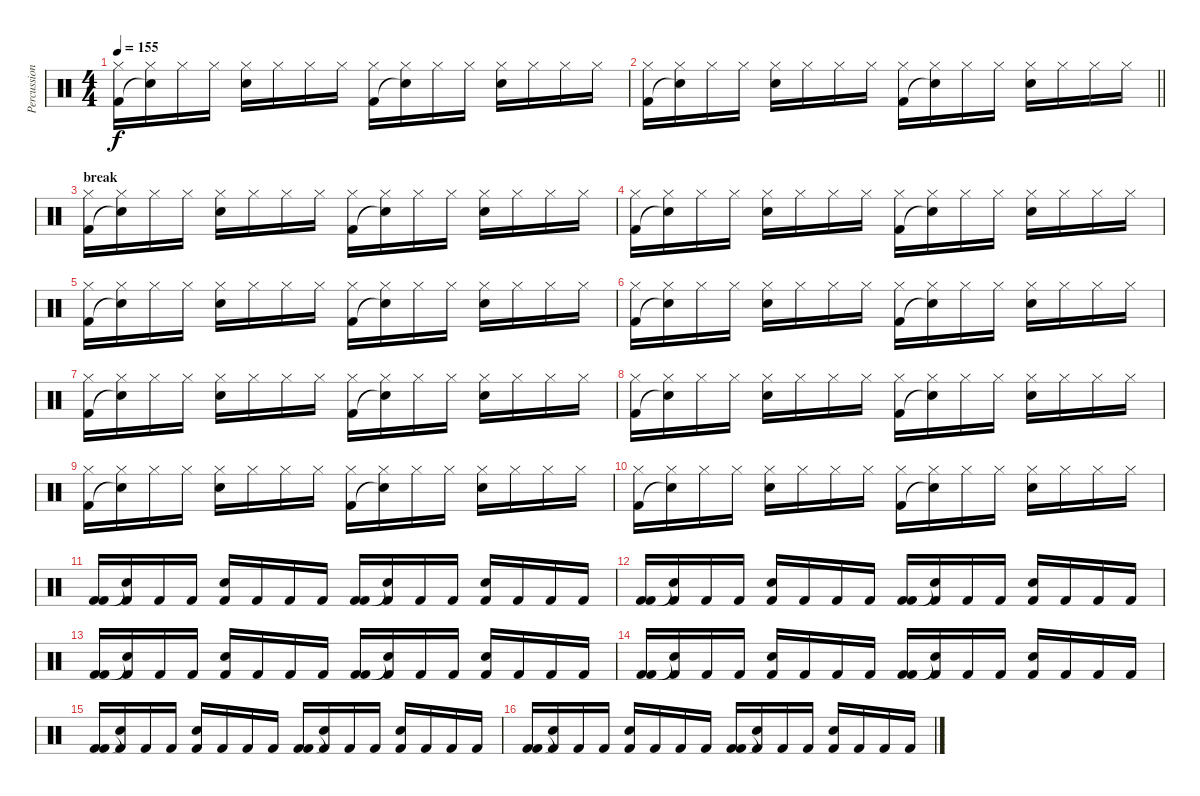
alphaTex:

\track ("Percussion" "Percussion") {instrument percussion}
\staff {score}
\articulation defaults
\ts (4 4)
\tempo 155
\clef neutral
\ks c
("Hi-Hat (closed)" "Kick (hit) 2").16{dy f} ("Hi-Hat (closed)" "Snare (hit)"{t}).16 "Hi-Hat (closed)".16 "Hi-Hat (closed)".16 ("Hi-Hat (closed)" "Snare (hit) 2").16 "Hi-Hat (closed)".16 "Hi-Hat (closed)".16 "Hi-Hat (closed)".16 ("Hi-Hat (closed)" "Kick (hit) 2").16 ("Hi-Hat (closed)" "Snare (hit)"{t}).16 "Hi-Hat (closed)".16 "Hi-Hat (closed)".16 ("Hi-Hat (closed)" "Snare (hit) 2").16 "Hi-Hat (closed)".16 "Hi-Hat (closed)".16 "Hi-Hat (closed)".16 |
\barLineRight lightlight
("Hi-Hat (closed)" "Kick (hit) 2").16 ("Hi-Hat (closed)" "Snare (hit)"{t}).16 "Hi-Hat (closed)".16 "Hi-Hat (closed)".16 ("Hi-Hat (closed)" "Snare (hit) 2").16 "Hi-Hat (closed)".16 "Hi-Hat (closed)".16 "Hi-Hat (closed)".16 ("Hi-Hat (closed)" "Kick (hit) 2").16 ("Hi-Hat (closed)" "Snare (hit)"{t}).16 "Hi-Hat (closed)".16 "Hi-Hat (closed)".16 ("Hi-Hat (closed)" "Snare (hit) 2").16 "Hi-Hat (closed)".16 "Hi-Hat (closed)".16 "Hi-Hat (closed)".16 |
\section ("" "break")
("Hi-Hat (closed)" "Kick (hit) 2").16 ("Hi-Hat (closed)" "Snare (hit)"{t}).16 "Hi-Hat (closed)".16 "Hi-Hat (closed)".16 ("Hi-Hat (closed)" "Snare (hit) 2").16 "Hi-Hat (closed)".16 "Hi-Hat (closed)".16 "Hi-Hat (closed)".16 ("Hi-Hat (closed)" "Kick (hit) 2").16 ("Hi-Hat (closed)" "Snare (hit)"{t}).16 "Hi-Hat (closed)".16 "Hi-Hat (closed)".16 ("Hi-Hat (closed)" "Snare (hit) 2").16 "Hi-Hat (closed)".16 "Hi-Hat (closed)".16 "Hi-Hat (closed)".16 |
("Hi-Hat (closed)" "Kick (hit) 2").16 ("Hi-Hat (closed)" "Snare (hit)"{t}).16 "Hi-Hat (closed)".16 "Hi-Hat (closed)".16 ("Hi-Hat (closed)" "Snare (hit) 2").16 "Hi-Hat (closed)".16 "Hi-Hat (closed)".16 "Hi-Hat (closed)".16 ("Hi-Hat (closed)" "Kick (hit) 2").16 ("Hi-Hat (closed)" "Snare (hit)"{t}).16 "Hi-Hat (closed)".16 "Hi-Hat (closed)".16 ("Hi-Hat (closed)" "Snare (hit) 2").16 "Hi-Hat (closed)".16 "Hi-Hat (closed)".16 "Hi-Hat (closed)".16 |
("Hi-Hat (closed)" "Kick (hit) 2").16 ("Hi-Hat (closed)" "Snare (hit)"{t}).16 "Hi-Hat (closed)".16 "Hi-Hat (closed)".16 ("Hi-Hat (closed)" "Snare (hit) 2").16 "Hi-Hat (closed)".16 "Hi-Hat (closed)".16 "Hi-Hat (closed)".16 ("Hi-Hat (closed)" "Kick (hit) 2").16 ("Hi-Hat (closed)" "Snare (hit)"{t}).16 "Hi-Hat (closed)".16 "Hi-Hat (closed)".16 ("Hi-Hat (closed)" "Snare (hit) 2").16 "Hi-Hat (closed)".16 "Hi-Hat (closed)".16 "Hi-Hat (closed)".16 |
("Hi-Hat (closed)" "Kick (hit) 2").16 ("Hi-Hat (closed)" "Snare (hit)"{t}).16 "Hi-Hat (closed)".16 "Hi-Hat (closed)".16 ("Hi-Hat (closed)" "Snare (hit) 2").16 "Hi-Hat (closed)".16 "Hi-Hat (closed)".16 "Hi-Hat (closed)".16 ("Hi-Hat (closed)" "Kick (hit) 2").16 ("Hi-Hat (closed)" "Snare (hit)"{t}).16 "Hi-Hat (closed)".16 "Hi-Hat (closed)".16 ("Hi-Hat (closed)" "Snare (hit) 2").16 "Hi-Hat (closed)".16 "Hi-Hat (closed)".16 "Hi-Hat (closed)".16 |
("Hi-Hat (closed)" "Kick (hit) 2").16 ("Hi-Hat (closed)" "Snare (hit)"{t}).16 "Hi-Hat (closed)".16 "Hi-Hat (closed)".16 ("Hi-Hat (closed)" "Snare (hit) 2").16 "Hi-Hat (closed)".16 "Hi-Hat (closed)".16 "Hi-Hat (closed)".16 ("Hi-Hat (closed)" "Kick (hit) 2").16 ("Hi-Hat (closed)" "Snare (hit)"{t}).16 "Hi-Hat (closed)".16 "Hi-Hat (closed)".16 ("Hi-Hat (closed)" "Snare (hit) 2").16 "Hi-Hat (closed)".16 "Hi-Hat (closed)".16 "Hi-Hat (closed)".16 |
("Hi-Hat (closed)" "Kick (hit) 2").16 ("Hi-Hat (closed)" "Snare (hit)"{t}).16 "Hi-Hat (closed)".16 "Hi-Hat (closed)".16 ("Hi-Hat (closed)" "Snare (hit) 2").16 "Hi-Hat (closed)".16 "Hi-Hat (closed)".16 "Hi-Hat (closed)".16 ("Hi-Hat (closed)" "Kick (hit) 2").16 ("Hi-Hat (closed)" "Snare (hit)"{t}).16 "Hi-Hat (closed)".16 "Hi-Hat (closed)".16 ("Hi-Hat (closed)" "Snare (hit) 2").16 "Hi-Hat (closed)".16 "Hi-Hat (closed)".16 "Hi-Hat (closed)".16 |
("Hi-Hat (closed)" "Kick (hit) 2").16 ("Hi-Hat (closed)" "Snare (hit)"{t}).16 "Hi-Hat (closed)".16 "Hi-Hat (closed)".16 ("Hi-Hat (closed)" "Snare (hit) 2").16 "Hi-Hat (closed)".16 "Hi-Hat (closed)".16 "Hi-Hat (closed)".16 ("Hi-Hat (closed)" "Kick (hit) 2").16 ("Hi-Hat (closed)" "Snare (hit)"{t}).16 "Hi-Hat (closed)".16 "Hi-Hat (closed)".16 ("Hi-Hat (closed)" "Snare (hit) 2").16 "Hi-Hat (closed)".16 "Hi-Hat (closed)".16 "Hi-Hat (closed)".16 |
("Hi-Hat (closed)" "Kick (hit) 2").16 ("Hi-Hat (closed)" "Snare (hit)"{t}).16 "Hi-Hat (closed)".16 "Hi-Hat (closed)".16 ("Hi-Hat (closed)" "Snare (hit) 2").16 "Hi-Hat (closed)".16 "Hi-Hat (closed)".16 "Hi-Hat (closed)".16 ("Hi-Hat (closed)" "Kick (hit) 2").16 ("Hi-Hat (closed)" "Snare (hit)"{t}).16 "Hi-Hat (closed)".16 "Hi-Hat (closed)".16 ("Hi-Hat (closed)" "Snare (hit) 2").16 "Hi-Hat (closed)".16 "Hi-Hat (closed)".16 "Hi-Hat (closed)".16 |
("Kick (hit) 2" "Kick (hit) 2").16 ("Kick (hit) 2" "Snare (hit)"{t}).16 "Kick (hit) 2".16 "Kick (hit) 2".16 ("Kick (hit) 2" "Snare (hit) 2").16 "Kick (hit) 2".16 "Kick (hit) 2".16 "Kick (hit) 2".16 ("Kick (hit) 2" "Kick (hit) 2").16 ("Kick (hit) 2" "Snare (hit)"{t}).16 "Kick (hit) 2".16 "Kick (hit) 2".16 ("Kick (hit) 2" "Snare (hit) 2").16 "Kick (hit) 2".16 "Kick (hit) 2".16 "Kick (hit) 2".16 |
("Kick (hit) 2" "Kick (hit) 2").16 ("Kick (hit) 2" "Snare (hit)"{t}).16 "Kick (hit) 2".16 "Kick (hit) 2".16 ("Kick (hit) 2" "Snare (hit) 2").16 "Kick (hit) 2".16 "Kick (hit) 2".16 "Kick (hit) 2".16 ("Kick (hit) 2" "Kick (hit) 2").16 ("Kick (hit) 2" "Snare (hit)"{t}).16 "Kick (hit) 2".16 "Kick (hit) 2".16 ("Kick (hit) 2" "Snare (hit) 2").16 "Kick (hit) 2".16 "Kick (hit) 2".16 "Kick (hit) 2".16 |
("Kick (hit) 2" "Kick (hit) 2").16 ("Kick (hit) 2" "Snare (hit)"{t}).16 "Kick (hit) 2".16 "Kick (hit) 2".16 ("Kick (hit) 2" "Snare (hit) 2").16 "Kick (hit) 2".16 "Kick (hit) 2".16 "Kick (hit) 2".16 ("Kick (hit) 2" "Kick (hit) 2").16 ("Kick (hit) 2" "Snare (hit)"{t}).16 "Kick (hit) 2".16 "Kick (hit) 2".16 ("Kick (hit) 2" "Snare (hit) 2").16 "Kick (hit) 2".16 "Kick (hit) 2".16 "Kick (hit) 2".16 |
("Kick (hit) 2" "Kick (hit) 2").16 ("Kick (hit) 2" "Snare (hit)"{t}).16 "Kick (hit) 2".16 "Kick (hit) 2".16 ("Kick (hit) 2" "Snare (hit) 2").16 "Kick (hit) 2".16 "Kick (hit) 2".16 "Kick (hit) 2".16 ("Kick (hit) 2" "Kick (hit) 2").16 ("Kick (hit) 2" "Snare (hit)"{t}).16 "Kick (hit) 2".16 "Kick (hit) 2".16 ("Kick (hit) 2" "Snare (hit) 2").16 "Kick (hit) 2".16 "Kick (hit) 2".16 "Kick (hit) 2".16 |
("Kick (hit) 2" "Kick (hit) 2").16 ("Kick (hit) 2" "Snare (hit)"{t}).16 "Kick (hit) 2".16 "Kick (hit) 2".16 ("Kick (hit) 2" "Snare (hit) 2").16 "Kick (hit) 2".16 "Kick (hit) 2".16 "Kick (hit) 2".16 ("Kick (hit) 2" "Kick (hit) 2").16 ("Kick (hit) 2" "Snare (hit)"{t}).16 "Kick (hit) 2".16 "Kick (hit) 2".16 ("Kick (hit) 2" "Snare (hit) 2").16 "Kick (hit) 2".16 "Kick (hit) 2".16 "Kick (hit) 2".16 |
("Kick (hit) 2" "Kick (hit) 2").16 ("Kick (hit) 2" "Snare (hit)"{t}).16 "Kick (hit) 2".16 "Kick (hit) 2".16 ("Kick (hit) 2" "Snare (hit) 2").16 "Kick (hit) 2".16 "Kick (hit) 2".16 "Kick (hit) 2".16 ("Kick (hit) 2" "Kick (hit) 2").16 ("Kick (hit) 2" "Snare (hit)"{t}).16 "Kick (hit) 2".16 "Kick (hit) 2".16 ("Kick (hit) 2" "Snare (hit) 2").16 "Kick (hit) 2".16 "Kick (hit) 2".16 "Kick (hit) 2".16
